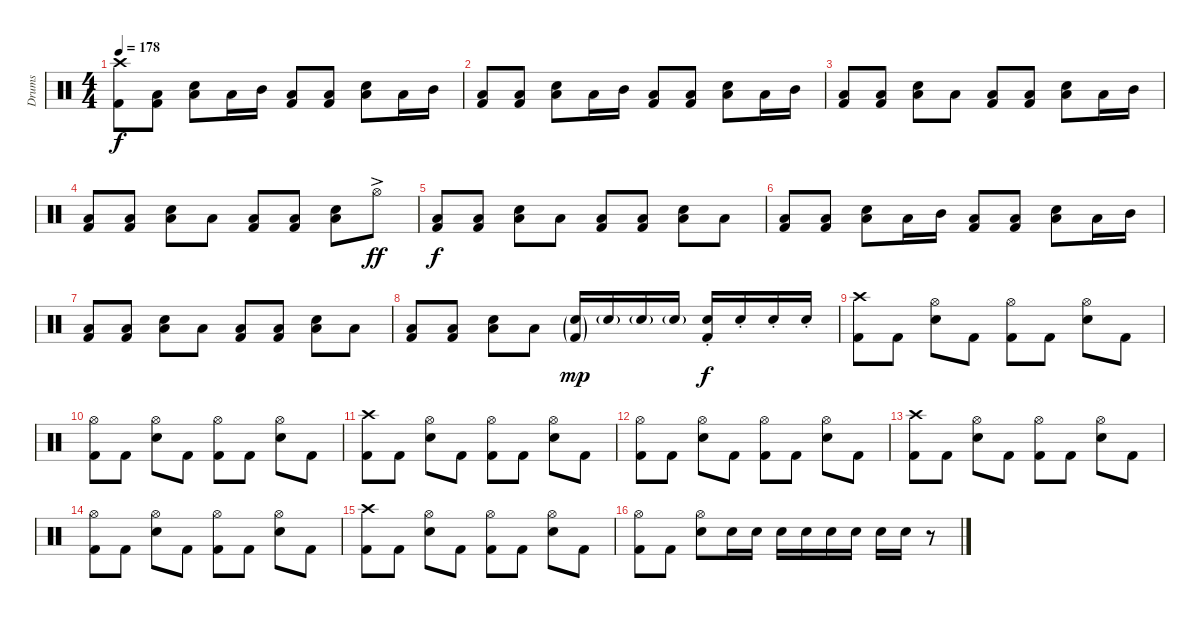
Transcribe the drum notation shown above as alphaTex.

\track ("Drums" "Drums") {instrument percussion}
\staff {score}
\articulation defaults
\ts (4 4)
\tempo 178
\clef neutral
\ks c
("Crash high (hit)" "Kick (hit) 2").8{dy f} ("Low Floor Tom (hit)" "Kick (hit) 2").8 ("Electric Snare (hit)" "Low Floor Tom (hit)").8 "Low Floor Tom (hit)".16 "Mid Tom (hit)".16 ("Low Floor Tom (hit)" "Kick (hit) 2").8 ("Low Floor Tom (hit)" "Kick (hit) 2").8 ("Electric Snare (hit)" "Low Floor Tom (hit)").8 "Low Floor Tom (hit)".16 "Mid Tom (hit)".16 |
("Low Floor Tom (hit)" "Kick (hit) 2").8 ("Low Floor Tom (hit)" "Kick (hit) 2").8 ("Electric Snare (hit)" "Low Floor Tom (hit)").8 "Low Floor Tom (hit)".16 "Mid Tom (hit)".16 ("Low Floor Tom (hit)" "Kick (hit) 2").8 ("Low Floor Tom (hit)" "Kick (hit) 2").8 ("Electric Snare (hit)" "Low Floor Tom (hit)").8 "Low Floor Tom (hit)".16 "Mid Tom (hit)".16 |
("Low Floor Tom (hit)" "Kick (hit) 2").8 ("Low Floor Tom (hit)" "Kick (hit) 2").8 ("Electric Snare (hit)" "Low Floor Tom (hit)").8 "Low Floor Tom (hit)".8 ("Low Floor Tom (hit)" "Kick (hit) 2").8 ("Low Floor Tom (hit)" "Kick (hit) 2").8 ("Electric Snare (hit)" "Low Floor Tom (hit)").8 "Low Floor Tom (hit)".16 "Mid Tom (hit)".16 |
("Low Floor Tom (hit)" "Kick (hit) 2").8 ("Low Floor Tom (hit)" "Kick (hit) 2").8 ("Electric Snare (hit)" "Low Floor Tom (hit)").8 "Low Floor Tom (hit)".8 ("Low Floor Tom (hit)" "Kick (hit) 2").8 ("Low Floor Tom (hit)" "Kick (hit) 2").8 ("Electric Snare (hit)" "Low Floor Tom (hit)").8 "Hi-Hat (open)"{ac}.8{dy ff} |
("Low Floor Tom (hit)" "Kick (hit) 2").8{dy f} ("Low Floor Tom (hit)" "Kick (hit) 2").8 ("Electric Snare (hit)" "Low Floor Tom (hit)").8 "Low Floor Tom (hit)".8 ("Low Floor Tom (hit)" "Kick (hit) 2").8 ("Low Floor Tom (hit)" "Kick (hit) 2").8 ("Electric Snare (hit)" "Low Floor Tom (hit)").8 "Low Floor Tom (hit)".8 |
("Low Floor Tom (hit)" "Kick (hit) 2").8 ("Low Floor Tom (hit)" "Kick (hit) 2").8 ("Electric Snare (hit)" "Low Floor Tom (hit)").8 "Low Floor Tom (hit)".16 "Mid Tom (hit)".16 ("Low Floor Tom (hit)" "Kick (hit) 2").8 ("Low Floor Tom (hit)" "Kick (hit) 2").8 ("Electric Snare (hit)" "Low Floor Tom (hit)").8 "Low Floor Tom (hit)".16 "Mid Tom (hit)".16 |
("Low Floor Tom (hit)" "Kick (hit) 2").8 ("Low Floor Tom (hit)" "Kick (hit) 2").8 ("Electric Snare (hit)" "Low Floor Tom (hit)").8 "Low Floor Tom (hit)".8 ("Low Floor Tom (hit)" "Kick (hit) 2").8 ("Low Floor Tom (hit)" "Kick (hit) 2").8 ("Electric Snare (hit)" "Low Floor Tom (hit)").8 "Low Floor Tom (hit)".8 |
("Low Floor Tom (hit)" "Kick (hit) 2").8 ("Low Floor Tom (hit)" "Kick (hit) 2").8 ("Electric Snare (hit)" "Low Floor Tom (hit)").8 "Low Floor Tom (hit)".8 ("Electric Snare (hit)"{g} "Kick (hit) 2"{g}).16{dy mp} "Electric Snare (hit)"{g}.16 "Electric Snare (hit)"{g}.16 "Electric Snare (hit)"{g}.16 ("Electric Snare (hit)"{st} "Kick (hit) 2"{st}).16{dy f} "Electric Snare (hit)"{st}.16 "Electric Snare (hit)"{st}.16 "Electric Snare (hit)"{st}.16 |
("Crash high (hit)" "Kick (hit) 2").8 "Kick (hit) 2".8 ("Hi-Hat (open)" "Electric Snare (hit)").8 "Kick (hit) 2".8 ("Hi-Hat (open)" "Kick (hit) 2").8 "Kick (hit) 2".8 ("Hi-Hat (open)" "Electric Snare (hit)").8 "Kick (hit) 2".8 |
("Hi-Hat (open)" "Kick (hit) 2").8 "Kick (hit) 2".8 ("Hi-Hat (open)" "Electric Snare (hit)").8 "Kick (hit) 2".8 ("Hi-Hat (open)" "Kick (hit) 2").8 "Kick (hit) 2".8 ("Hi-Hat (open)" "Electric Snare (hit)").8 "Kick (hit) 2".8 |
("Crash high (hit)" "Kick (hit) 2").8 "Kick (hit) 2".8 ("Hi-Hat (open)" "Electric Snare (hit)").8 "Kick (hit) 2".8 ("Hi-Hat (open)" "Kick (hit) 2").8 "Kick (hit) 2".8 ("Hi-Hat (open)" "Electric Snare (hit)").8 "Kick (hit) 2".8 |
("Hi-Hat (open)" "Kick (hit) 2").8 "Kick (hit) 2".8 ("Hi-Hat (open)" "Electric Snare (hit)").8 "Kick (hit) 2".8 ("Hi-Hat (open)" "Kick (hit) 2").8 "Kick (hit) 2".8 ("Hi-Hat (open)" "Electric Snare (hit)").8 "Kick (hit) 2".8 |
("Crash high (hit)" "Kick (hit) 2").8 "Kick (hit) 2".8 ("Hi-Hat (open)" "Electric Snare (hit)").8 "Kick (hit) 2".8 ("Hi-Hat (open)" "Kick (hit) 2").8 "Kick (hit) 2".8 ("Hi-Hat (open)" "Electric Snare (hit)").8 "Kick (hit) 2".8 |
("Hi-Hat (open)" "Kick (hit) 2").8 "Kick (hit) 2".8 ("Hi-Hat (open)" "Electric Snare (hit)").8 "Kick (hit) 2".8 ("Hi-Hat (open)" "Kick (hit) 2").8 "Kick (hit) 2".8 ("Hi-Hat (open)" "Electric Snare (hit)").8 "Kick (hit) 2".8 |
("Crash high (hit)" "Kick (hit) 2").8 "Kick (hit) 2".8 ("Hi-Hat (open)" "Electric Snare (hit)").8 "Kick (hit) 2".8 ("Hi-Hat (open)" "Kick (hit) 2").8 "Kick (hit) 2".8 ("Hi-Hat (open)" "Electric Snare (hit)").8 "Kick (hit) 2".8 |
("Hi-Hat (open)" "Kick (hit) 2").8 "Kick (hit) 2".8 ("Hi-Hat (open)" "Electric Snare (hit)").8 "Electric Snare (hit)".16 "Electric Snare (hit)".16 "Electric Snare (hit)".16 "Electric Snare (hit)".16 "Electric Snare (hit)".16 "Electric Snare (hit)".16 "Electric Snare (hit)".16 "Electric Snare (hit)".16 r.8
